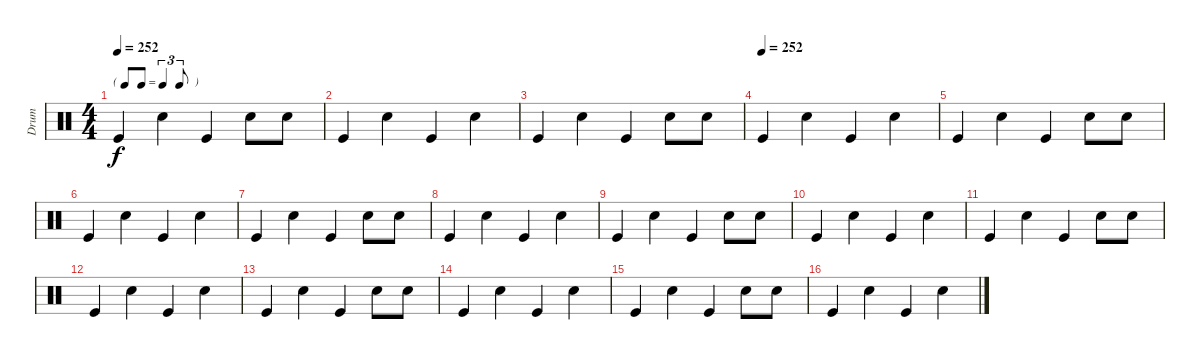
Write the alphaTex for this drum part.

\track ("Drum" "Drum") {instrument percussion}
\staff {score}
\articulation defaults
\ts (4 4)
\tf triplet8th
\tempo 252
\clef neutral
\ks c "Kick (hit)".4{dy f} "Snare (hit) 2".4 "Kick (hit)".4 "Snare (hit) 2".8 "Snare (hit) 2".8
|
"Kick (hit)".4 "Snare (hit) 2".4 "Kick (hit)".4 "Snare (hit) 2".4 |
"Kick (hit)".4 "Snare (hit) 2".4 "Kick (hit)".4 "Snare (hit) 2".8 "Snare (hit) 2".8 |
\tempo (252)
"Kick (hit)".4 "Snare (hit) 2".4 "Kick (hit)".4 "Snare (hit) 2".4 |
"Kick (hit)".4 "Snare (hit) 2".4 "Kick (hit)".4 "Snare (hit) 2".8 "Snare (hit) 2".8 |
"Kick (hit)".4 "Snare (hit) 2".4 "Kick (hit)".4 "Snare (hit) 2".4 |
"Kick (hit)".4 "Snare (hit) 2".4 "Kick (hit)".4 "Snare (hit) 2".8 "Snare (hit) 2".8 |
"Kick (hit)".4 "Snare (hit) 2".4 "Kick (hit)".4 "Snare (hit) 2".4 |
"Kick (hit)".4 "Snare (hit) 2".4 "Kick (hit)".4 "Snare (hit) 2".8 "Snare (hit) 2".8 |
"Kick (hit)".4 "Snare (hit) 2".4 "Kick (hit)".4 "Snare (hit) 2".4 |
"Kick (hit)".4 "Snare (hit) 2".4 "Kick (hit)".4 "Snare (hit) 2".8 "Snare (hit) 2".8 |
"Kick (hit)".4 "Snare (hit) 2".4 "Kick (hit)".4 "Snare (hit) 2".4 |
"Kick (hit)".4 "Snare (hit) 2".4 "Kick (hit)".4 "Snare (hit) 2".8 "Snare (hit) 2".8 |
"Kick (hit)".4 "Snare (hit) 2".4 "Kick (hit)".4 "Snare (hit) 2".4 |
"Kick (hit)".4 "Snare (hit) 2".4 "Kick (hit)".4 "Snare (hit) 2".8 "Snare (hit) 2".8 |
"Kick (hit)".4 "Snare (hit) 2".4 "Kick (hit)".4 "Snare (hit) 2".4
